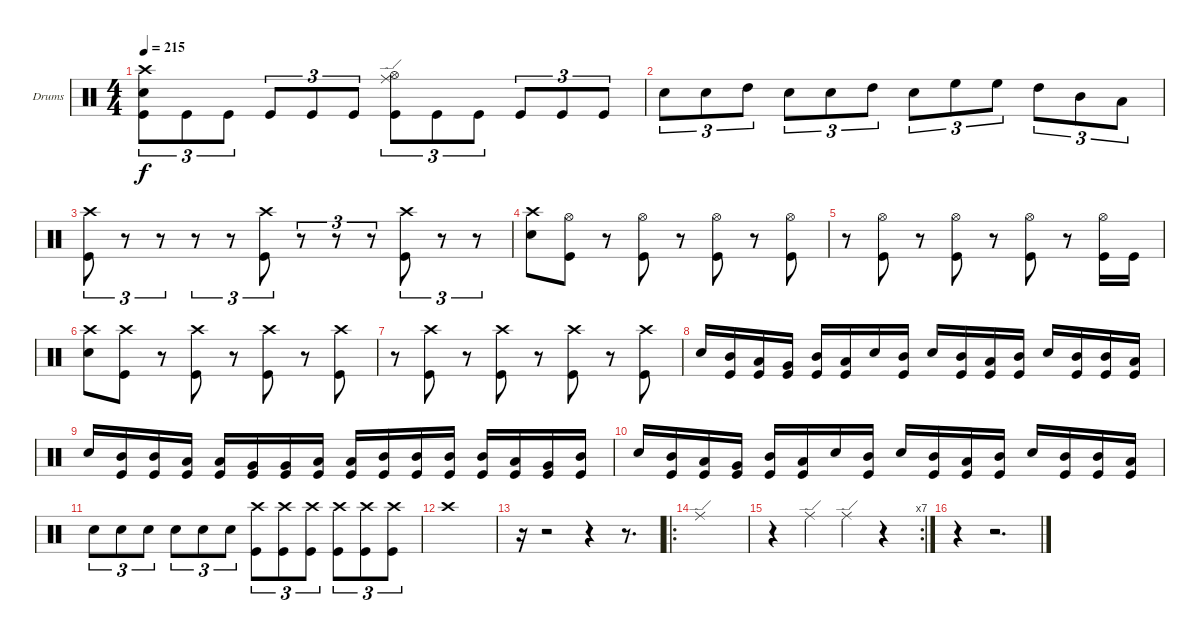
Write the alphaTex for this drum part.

\bracketExtendMode groupsimilarinstruments
\firstSystemTrackNameOrientation horizontal
\otherSystemsTrackNameOrientation horizontal
\track ("Dave McClain" "Drums") {instrument percussion}
\staff {score}
\articulation defaults
\ts (4 4)
\tempo 215
\clef neutral
\ks c
("Crash high (hit)" "Snare (hit) 2" "Kick (hit)").8{tu (3 2) dy f} "Kick (hit)".8{tu (3 2)} "Kick (hit)".8{tu (3 2)} "Kick (hit)".8{tu (3 2)} "Kick (hit)".8{tu (3 2)} "Kick (hit)".8{tu (3 2)} ("Ride (edge)" "Hi-Hat (open)" "Kick (hit)").8{tu (3 2)} "Kick (hit)".8{tu (3 2)} "Kick (hit)".8{tu (3 2)} "Kick (hit)".8{tu (3 2)} "Kick (hit)".8{tu (3 2)} "Kick (hit)".8{tu (3 2)} |
"Snare (hit) 2".8{tu (3 2)} "Snare (hit) 2".8{tu (3 2)} "High Tom (hit)".8{tu (3 2)} "Snare (hit) 2".8{tu (3 2)} "Snare (hit) 2".8{tu (3 2)} "High Tom (hit)".8{tu (3 2)} "Snare (hit) 2".8{tu (3 2)} "High Floor Tom (hit)".8{tu (3 2)} "High Floor Tom (hit)".8{tu (3 2)} "High Tom (hit)".8{tu (3 2)} "Mid Tom (hit)".8{tu (3 2)} "Low Tom (hit)".8{tu (3 2)} |
("Crash high (hit)" "Kick (hit)").8{tu (3 2)} r.8{tu (3 2)} r.8{tu (3 2)} r.8{tu (3 2)} r.8{tu (3 2)} ("Crash high (hit)" "Kick (hit)").8{tu (3 2)} r.8{tu (3 2)} r.8{tu (3 2)} r.8{tu (3 2)} ("Crash high (hit)" "Kick (hit)").8{tu (3 2)} r.8{tu (3 2)} r.8{tu (3 2)} |
("Crash high (hit)" "Snare (hit) 2").8 ("Hi-Hat (open)" "Kick (hit)").8 r.8 ("Hi-Hat (open)" "Kick (hit)").8 r.8 ("Hi-Hat (open)" "Kick (hit)").8 r.8 ("Hi-Hat (open)" "Kick (hit)").8 |
r.8 ("Hi-Hat (open)" "Kick (hit)").8 r.8 ("Hi-Hat (open)" "Kick (hit)").8 r.8 ("Hi-Hat (open)" "Kick (hit)").8 r.8 ("Hi-Hat (open)" "Kick (hit)").16 "Kick (hit)".16 |
("Crash high (hit)" "Snare (hit) 2").8 ("Crash high (hit)" "Kick (hit)").8 r.8 ("Crash high (hit)" "Kick (hit)").8 r.8 ("Crash high (hit)" "Kick (hit)").8 r.8 ("Crash high (hit)" "Kick (hit)").8 |
r.8 ("Crash high (hit)" "Kick (hit)").8 r.8 ("Crash high (hit)" "Kick (hit)").8 r.8 ("Crash high (hit)" "Kick (hit)").8 r.8 ("Crash high (hit)" "Kick (hit)").8 |
"Snare (hit) 2".16 ("Mid Tom (hit)" "Kick (hit)").16 ("Low Tom (hit)" "Kick (hit)").16 ("Very Low Tom (hit)" "Kick (hit)").16 ("Mid Tom (hit)" "Kick (hit)").16 ("Low Tom (hit)" "Kick (hit)").16 "Snare (hit) 2".16 ("Mid Tom (hit)" "Kick (hit)").16 "Snare (hit) 2".16 ("Mid Tom (hit)" "Kick (hit)").16 ("Low Tom (hit)" "Kick (hit)").16 ("Mid Tom (hit)" "Kick (hit)").16 "Snare (hit) 2".16 ("Mid Tom (hit)" "Kick (hit)").16 ("Mid Tom (hit)" "Kick (hit)").16 ("Low Tom (hit)" "Kick (hit)").16 |
"Snare (hit) 2".16 ("Mid Tom (hit)" "Kick (hit)").16 ("Mid Tom (hit)" "Kick (hit)").16 ("Low Tom (hit)" "Kick (hit)").16 ("Low Tom (hit)" "Kick (hit)").16 ("Very Low Tom (hit)" "Kick (hit)").16 ("Very Low Tom (hit)" "Kick (hit)").16 ("Low Tom (hit)" "Kick (hit)").16 ("Low Tom (hit)" "Kick (hit)").16 ("Mid Tom (hit)" "Kick (hit)").16 ("Mid Tom (hit)" "Kick (hit)").16 ("Mid Tom (hit)" "Kick (hit)").16 ("Mid Tom (hit)" "Kick (hit)").16 ("Low Tom (hit)" "Kick (hit)").16 ("Very Low Tom (hit)" "Kick (hit)").16 ("Mid Tom (hit)" "Kick (hit)").16 |
"Snare (hit) 2".16 ("Mid Tom (hit)" "Kick (hit)").16 ("Low Tom (hit)" "Kick (hit)").16 ("Very Low Tom (hit)" "Kick (hit)").16 ("Mid Tom (hit)" "Kick (hit)").16 ("Low Tom (hit)" "Kick (hit)").16 "Snare (hit) 2".16 ("Mid Tom (hit)" "Kick (hit)").16 "Snare (hit) 2".16 ("Mid Tom (hit)" "Kick (hit)").16 ("Low Tom (hit)" "Kick (hit)").16 ("Mid Tom (hit)" "Kick (hit)").16 "Snare (hit) 2".16 ("Mid Tom (hit)" "Kick (hit)").16 ("Mid Tom (hit)" "Kick (hit)").16 ("Low Tom (hit)" "Kick (hit)").16 |
"Snare (hit) 2".8{tu (3 2)} "Snare (hit) 2".8{tu (3 2)} "Snare (hit) 2".8{tu (3 2)} "Snare (hit) 2".8{tu (3 2)} "Snare (hit) 2".8{tu (3 2)} "Snare (hit) 2".8{tu (3 2)} ("Crash high (hit)" "Kick (hit)").8{tu (3 2)} ("Crash high (hit)" "Kick (hit)").8{tu (3 2)} ("Crash high (hit)" "Kick (hit)").8{tu (3 2)} ("Crash high (hit)" "Kick (hit)").8{tu (3 2)} ("Crash high (hit)" "Kick (hit)").8{tu (3 2)} ("Crash high (hit)" "Kick (hit)").8{tu (3 2)} |
"Crash high (hit)".1 |
r.16 r.2 r.4 r.8{d} |
\ro "Ride (edge)".1
|
\rc 7
r.4 "Ride (edge)".4 "Ride (edge)".4 r.4 |
r.4 r.2{d}
